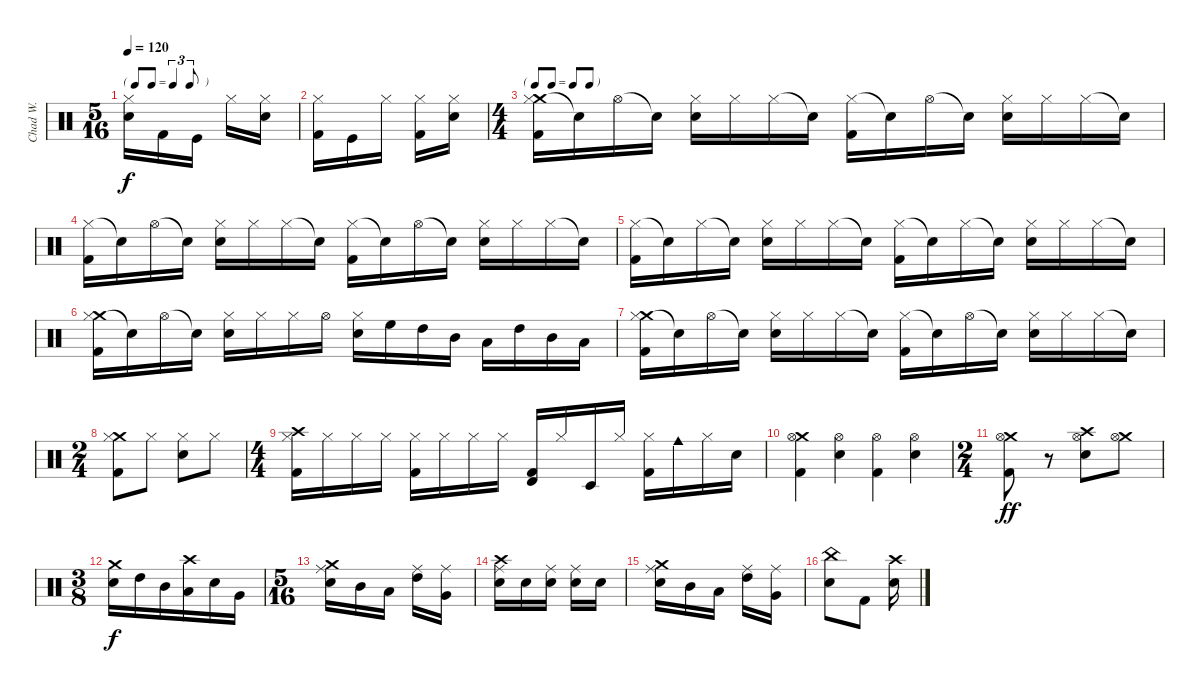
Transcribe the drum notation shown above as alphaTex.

\track ("Chad W." "Chad W.") {instrument percussion bank 177}
\staff {score}
\articulation defaults
\ts (5 16)
\tf triplet8th
\tempo 120
\clef neutral
\ks c
("Hi-Hat (closed)" "Electric Snare (hit)").16{dy f} "Kick (hit) 2".16 "Kick (hit)".16 "Hi-Hat (closed)".16 ("Hi-Hat (closed)" "Electric Snare (hit)").16 |
("Hi-Hat (closed)" "Kick (hit) 2").16 "Kick (hit)".16 "Hi-Hat (closed)".16 ("Hi-Hat (closed)" "Kick (hit) 2").16 ("Hi-Hat (closed)" "Electric Snare (hit)").16 |
\ts (4 4)
\tf none
("Crash medium (hit)" "Hi-Hat (closed)" "Kick (hit) 2").16 "Snare (hit)"{t}.16 "Hi-Hat (open)".16 "Snare (hit)"{t}.16 ("Hi-Hat (closed)" "Electric Snare (hit)").16 "Hi-Hat (closed)".16 "Hi-Hat (closed)".16 "Snare (hit)"{t}.16 ("Hi-Hat (closed)" "Kick (hit) 2").16 "Snare (hit)"{t}.16 "Hi-Hat (open)".16 "Snare (hit)"{t}.16 ("Hi-Hat (closed)" "Electric Snare (hit)").16 "Hi-Hat (closed)".16 "Hi-Hat (closed)".16 "Snare (hit)"{t}.16 |
("Hi-Hat (closed)" "Kick (hit) 2").16 "Snare (hit)"{t}.16 "Hi-Hat (open)".16 "Snare (hit)"{t}.16 ("Hi-Hat (closed)" "Electric Snare (hit)").16 "Hi-Hat (closed)".16 "Hi-Hat (closed)".16 "Snare (hit)"{t}.16 ("Hi-Hat (closed)" "Kick (hit) 2").16 "Snare (hit)"{t}.16 "Hi-Hat (open)".16 "Snare (hit)"{t}.16 ("Hi-Hat (closed)" "Electric Snare (hit)").16 "Hi-Hat (closed)".16 "Hi-Hat (closed)".16 "Snare (hit)"{t}.16 |
("Hi-Hat (closed)" "Kick (hit) 2").16 "Snare (hit)"{t}.16 "Hi-Hat (closed)".16 "Snare (hit)"{t}.16 ("Hi-Hat (closed)" "Electric Snare (hit)").16 "Hi-Hat (closed)".16 "Hi-Hat (closed)".16 "Snare (hit)"{t}.16 ("Hi-Hat (closed)" "Kick (hit) 2").16 "Snare (hit)"{t}.16 "Hi-Hat (closed)".16 "Snare (hit)"{t}.16 ("Hi-Hat (closed)" "Electric Snare (hit)").16 "Hi-Hat (closed)".16 "Hi-Hat (closed)".16 "Snare (hit)"{t}.16 |
("Crash medium (hit)" "Hi-Hat (closed)" "Kick (hit) 2").16 "Snare (hit)"{t}.16 "Hi-Hat (open)".16 "Snare (hit)"{t}.16 ("Hi-Hat (closed)" "Electric Snare (hit)").16 "Hi-Hat (closed)".16 "Hi-Hat (closed)".16 "Hi-Hat (open)".16 ("Hi-Hat (closed)" "Electric Snare (hit)").16 "High Floor Tom (hit)".16 "High Tom (hit)".16 "Mid Tom (hit)".16 "Low Tom (hit)".16 "High Tom (hit)".16 "Mid Tom (hit)".16 "Low Tom (hit)".16 |
("Crash medium (hit)" "Hi-Hat (closed)" "Kick (hit) 2").16 "Snare (hit)"{t}.16 "Hi-Hat (open)".16 "Snare (hit)"{t}.16 ("Hi-Hat (closed)" "Electric Snare (hit)").16 "Hi-Hat (closed)".16 "Hi-Hat (closed)".16 "Snare (hit)"{t}.16 ("Hi-Hat (closed)" "Kick (hit) 2").16 "Snare (hit)"{t}.16 "Hi-Hat (open)".16 "Snare (hit)"{t}.16 ("Hi-Hat (closed)" "Electric Snare (hit)").16 "Hi-Hat (closed)".16 "Hi-Hat (closed)".16 "Snare (hit)"{t}.16 |
\ts (2 4)
("Crash medium (hit)" "Hi-Hat (closed)" "Kick (hit) 2").8 "Hi-Hat (closed)".8 ("Hi-Hat (closed)" "Electric Snare (hit)").8 "Hi-Hat (closed)".8 |
\ts (4 4)
("Crash high (hit)" "Hi-Hat (closed)" "Kick (hit) 2").16 "Hi-Hat (closed)".16 "Hi-Hat (closed)".16 "Hi-Hat (closed)".16 ("Hi-Hat (closed)" "Kick (hit) 2").16 "Hi-Hat (closed)".16 "Hi-Hat (closed)".16 "Hi-Hat (closed)".16 ("Timbale high (hit)" "Kick (hit) 2").16 "Hi-Hat (closed)".16 "Timbale low (hit)".16 "Hi-Hat (closed)".16 ("Hi-Hat (closed)" "Kick (hit) 2").16 "Cowbell medium (hit)".16 "Hi-Hat (closed)".16 "Electric Snare (hit)".16 |
("Crash medium (hit)" "Hi-Hat (open)" "Kick (hit) 2").4 ("Hi-Hat (open)" "Electric Snare (hit)").4 ("Hi-Hat (open)" "Kick (hit) 2").4 ("Hi-Hat (open)" "Electric Snare (hit)").4 |
\ts (2 4)
("Crash medium (hit)" "Hi-Hat (open)" "Kick (hit) 2").8{dy ff} r.8 ("Crash high (hit)" "Hi-Hat (open)" "Electric Snare (hit)").8 ("Crash medium (hit)" "Hi-Hat (open)").8 |
\ts (3 8)
("Crash medium (hit)" "Electric Snare (hit)").16{dy f} "High Tom (hit)".16 "Mid Tom (hit)".16 ("Crash high (hit)" "Low Tom (hit)").16 "Electric Snare (hit)".16 "Very Low Tom (hit)".16 |
\ts (5 16)
("Crash medium (hit)" "Ride (middle)" "Electric Snare (hit)").16 "Mid Tom (hit)".16 "Low Tom (hit)".16 ("Ride (middle)" "High Tom (hit)").16 ("Ride (middle)" "Very Low Tom (hit)").16 |
("Crash high (hit)" "Ride (middle)" "Electric Snare (hit)").16 "Electric Snare (hit)".16 ("Ride (middle)" "Electric Snare (hit)").16 ("Ride (middle)" "Electric Snare (hit)").16 "Electric Snare (hit)".16 |
("Crash medium (hit)" "Ride (middle)" "Electric Snare (hit)").16 "Mid Tom (hit)".16 "Low Tom (hit)".16 ("Ride (middle)" "High Tom (hit)").16 ("Ride (middle)" "Very Low Tom (hit)").16 |
("China (hit)" "Electric Snare (hit)").8 "Kick (hit) 2".8 ("Crash high (hit)" "Electric Snare (hit)").16
